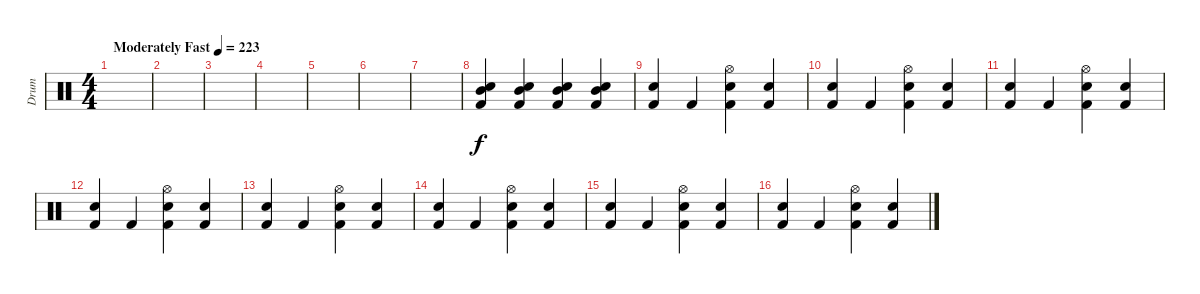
\track ("Drum" "Drum") {instrument percussion}
\staff {score}
\articulation defaults
\ts (4 4)
\tempo (223 "Moderately Fast")
\clef neutral
\ks c
|
|
|
|
|
|
|
("Kick (hit) 2" "Electric Snare (hit)" "Mid Tom (hit)").4 ("Kick (hit) 2" "Electric Snare (hit)" "Mid Tom (hit)").4 ("Kick (hit) 2" "Electric Snare (hit)" "Mid Tom (hit)").4 ("Kick (hit) 2" "Electric Snare (hit)" "Mid Tom (hit)").4 |
("Kick (hit) 2" "Electric Snare (hit)").4 "Kick (hit) 2".4 ("Hi-Hat (open)" "Kick (hit) 2" "Electric Snare (hit)").4 ("Kick (hit) 2" "Electric Snare (hit)").4 |
("Kick (hit) 2" "Electric Snare (hit)").4 "Kick (hit) 2".4 ("Hi-Hat (open)" "Kick (hit) 2" "Electric Snare (hit)").4 ("Kick (hit) 2" "Electric Snare (hit)").4 |
("Kick (hit) 2" "Electric Snare (hit)").4 "Kick (hit) 2".4 ("Hi-Hat (open)" "Kick (hit) 2" "Electric Snare (hit)").4 ("Kick (hit) 2" "Electric Snare (hit)").4 |
("Kick (hit) 2" "Electric Snare (hit)").4 "Kick (hit) 2".4 ("Hi-Hat (open)" "Kick (hit) 2" "Electric Snare (hit)").4 ("Kick (hit) 2" "Electric Snare (hit)").4 |
("Kick (hit) 2" "Electric Snare (hit)").4 "Kick (hit) 2".4 ("Hi-Hat (open)" "Kick (hit) 2" "Electric Snare (hit)").4 ("Kick (hit) 2" "Electric Snare (hit)").4 |
("Kick (hit) 2" "Electric Snare (hit)").4 "Kick (hit) 2".4 ("Hi-Hat (open)" "Kick (hit) 2" "Electric Snare (hit)").4 ("Kick (hit) 2" "Electric Snare (hit)").4 |
("Kick (hit) 2" "Electric Snare (hit)").4 "Kick (hit) 2".4 ("Hi-Hat (open)" "Kick (hit) 2" "Electric Snare (hit)").4 ("Kick (hit) 2" "Electric Snare (hit)").4 |
("Kick (hit) 2" "Electric Snare (hit)").4 "Kick (hit) 2".4 ("Hi-Hat (open)" "Kick (hit) 2" "Electric Snare (hit)").4 ("Kick (hit) 2" "Electric Snare (hit)").4
